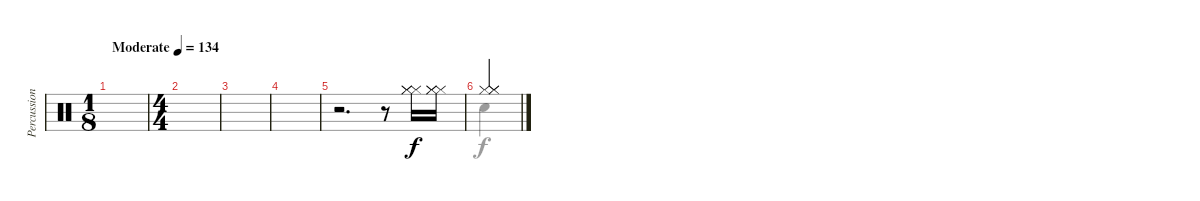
\track ("Percussion" "Percussion") {instrument percussion}
\staff {score}
\articulation defaults
\voice
\ts (1 8)
\tempo (134 "Moderate")
\clef neutral
\ks c
|
\ts (4 4)
|
|
|
r.2{d} r.8 ("Hi-Hat (closed)" "Hi-Hat (closed)" "Hi-Hat (closed)").16 ("Hi-Hat (closed)" "Hi-Hat (closed)" "Hi-Hat (closed)").16 |
("Hi-Hat (closed)" "Hi-Hat (closed)" "Hi-Hat (closed)").4 |
|
|
|
|
|
|
|
|
|
\voice
\clef neutral
\ottava regular
\simile none
\ks c
|
|
|
|
|
"Snare (hit)".4 |
|
|
|
|
|
|
|
|
|
